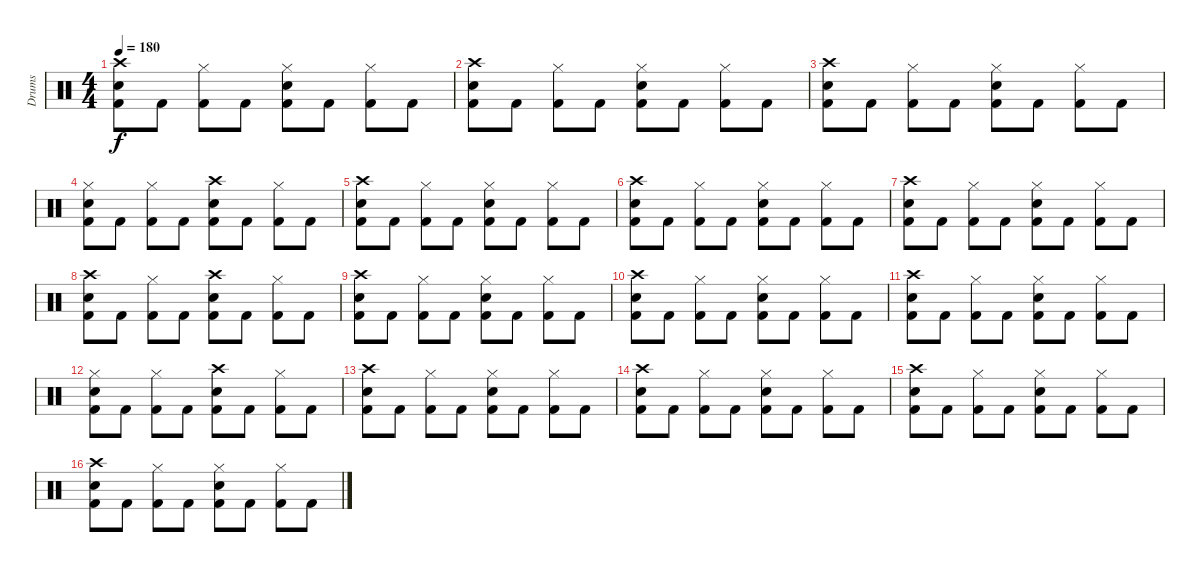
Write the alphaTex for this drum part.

\track ("Drums" "Drums") {instrument percussion}
\staff {score}
\articulation defaults
\ts (4 4)
\tempo 180
\clef neutral
\ks c
("Crash high (hit)" "Electric Snare (hit)" "Kick (hit) 2").8{dy f} "Kick (hit) 2".8 ("Hi-Hat (closed)" "Kick (hit) 2").8 "Kick (hit) 2".8 ("Hi-Hat (closed)" "Electric Snare (hit)" "Kick (hit) 2").8 "Kick (hit) 2".8 ("Hi-Hat (closed)" "Kick (hit) 2").8 "Kick (hit) 2".8 |
("Crash high (hit)" "Electric Snare (hit)" "Kick (hit) 2").8 "Kick (hit) 2".8 ("Hi-Hat (closed)" "Kick (hit) 2").8 "Kick (hit) 2".8 ("Hi-Hat (closed)" "Electric Snare (hit)" "Kick (hit) 2").8 "Kick (hit) 2".8 ("Hi-Hat (closed)" "Kick (hit) 2").8 "Kick (hit) 2".8 |
("Crash high (hit)" "Electric Snare (hit)" "Kick (hit) 2").8 "Kick (hit) 2".8 ("Hi-Hat (closed)" "Kick (hit) 2").8 "Kick (hit) 2".8 ("Hi-Hat (closed)" "Electric Snare (hit)" "Kick (hit) 2").8 "Kick (hit) 2".8 ("Hi-Hat (closed)" "Kick (hit) 2").8 "Kick (hit) 2".8 |
("Hi-Hat (closed)" "Electric Snare (hit)" "Kick (hit) 2").8 "Kick (hit) 2".8 ("Hi-Hat (closed)" "Kick (hit) 2").8 "Kick (hit) 2".8 ("Crash high (hit)" "Electric Snare (hit)" "Kick (hit) 2").8 "Kick (hit) 2".8 ("Hi-Hat (closed)" "Kick (hit) 2").8 "Kick (hit) 2".8 |
("Crash high (hit)" "Electric Snare (hit)" "Kick (hit) 2").8 "Kick (hit) 2".8 ("Hi-Hat (closed)" "Kick (hit) 2").8 "Kick (hit) 2".8 ("Hi-Hat (closed)" "Electric Snare (hit)" "Kick (hit) 2").8 "Kick (hit) 2".8 ("Hi-Hat (closed)" "Kick (hit) 2").8 "Kick (hit) 2".8 |
("Crash high (hit)" "Electric Snare (hit)" "Kick (hit) 2").8 "Kick (hit) 2".8 ("Hi-Hat (closed)" "Kick (hit) 2").8 "Kick (hit) 2".8 ("Hi-Hat (closed)" "Electric Snare (hit)" "Kick (hit) 2").8 "Kick (hit) 2".8 ("Hi-Hat (closed)" "Kick (hit) 2").8 "Kick (hit) 2".8 |
("Crash high (hit)" "Electric Snare (hit)" "Kick (hit) 2").8 "Kick (hit) 2".8 ("Hi-Hat (closed)" "Kick (hit) 2").8 "Kick (hit) 2".8 ("Hi-Hat (closed)" "Electric Snare (hit)" "Kick (hit) 2").8 "Kick (hit) 2".8 ("Hi-Hat (closed)" "Kick (hit) 2").8 "Kick (hit) 2".8 |
("Crash high (hit)" "Electric Snare (hit)" "Kick (hit) 2").8 "Kick (hit) 2".8 ("Hi-Hat (closed)" "Kick (hit) 2").8 "Kick (hit) 2".8 ("Crash high (hit)" "Electric Snare (hit)" "Kick (hit) 2").8 "Kick (hit) 2".8 ("Hi-Hat (closed)" "Kick (hit) 2").8 "Kick (hit) 2".8 |
("Crash high (hit)" "Electric Snare (hit)" "Kick (hit) 2").8 "Kick (hit) 2".8 ("Hi-Hat (closed)" "Kick (hit) 2").8 "Kick (hit) 2".8 ("Hi-Hat (closed)" "Electric Snare (hit)" "Kick (hit) 2").8 "Kick (hit) 2".8 ("Hi-Hat (closed)" "Kick (hit) 2").8 "Kick (hit) 2".8 |
("Crash high (hit)" "Electric Snare (hit)" "Kick (hit) 2").8 "Kick (hit) 2".8 ("Hi-Hat (closed)" "Kick (hit) 2").8 "Kick (hit) 2".8 ("Hi-Hat (closed)" "Electric Snare (hit)" "Kick (hit) 2").8 "Kick (hit) 2".8 ("Hi-Hat (closed)" "Kick (hit) 2").8 "Kick (hit) 2".8 |
("Crash high (hit)" "Electric Snare (hit)" "Kick (hit) 2").8 "Kick (hit) 2".8 ("Hi-Hat (closed)" "Kick (hit) 2").8 "Kick (hit) 2".8 ("Hi-Hat (closed)" "Electric Snare (hit)" "Kick (hit) 2").8 "Kick (hit) 2".8 ("Hi-Hat (closed)" "Kick (hit) 2").8 "Kick (hit) 2".8 |
("Hi-Hat (closed)" "Electric Snare (hit)" "Kick (hit) 2").8 "Kick (hit) 2".8 ("Hi-Hat (closed)" "Kick (hit) 2").8 "Kick (hit) 2".8 ("Crash high (hit)" "Electric Snare (hit)" "Kick (hit) 2").8 "Kick (hit) 2".8 ("Hi-Hat (closed)" "Kick (hit) 2").8 "Kick (hit) 2".8 |
("Crash high (hit)" "Electric Snare (hit)" "Kick (hit) 2").8 "Kick (hit) 2".8 ("Hi-Hat (closed)" "Kick (hit) 2").8 "Kick (hit) 2".8 ("Hi-Hat (closed)" "Electric Snare (hit)" "Kick (hit) 2").8 "Kick (hit) 2".8 ("Hi-Hat (closed)" "Kick (hit) 2").8 "Kick (hit) 2".8 |
("Crash high (hit)" "Electric Snare (hit)" "Kick (hit) 2").8 "Kick (hit) 2".8 ("Hi-Hat (closed)" "Kick (hit) 2").8 "Kick (hit) 2".8 ("Hi-Hat (closed)" "Electric Snare (hit)" "Kick (hit) 2").8 "Kick (hit) 2".8 ("Hi-Hat (closed)" "Kick (hit) 2").8 "Kick (hit) 2".8 |
("Crash high (hit)" "Electric Snare (hit)" "Kick (hit) 2").8 "Kick (hit) 2".8 ("Hi-Hat (closed)" "Kick (hit) 2").8 "Kick (hit) 2".8 ("Hi-Hat (closed)" "Electric Snare (hit)" "Kick (hit) 2").8 "Kick (hit) 2".8 ("Hi-Hat (closed)" "Kick (hit) 2").8 "Kick (hit) 2".8 |
("Crash high (hit)" "Electric Snare (hit)" "Kick (hit) 2").8 "Kick (hit) 2".8 ("Hi-Hat (closed)" "Kick (hit) 2").8 "Kick (hit) 2".8 ("Hi-Hat (closed)" "Electric Snare (hit)" "Kick (hit) 2").8 "Kick (hit) 2".8 ("Hi-Hat (closed)" "Kick (hit) 2").8 "Kick (hit) 2".8
